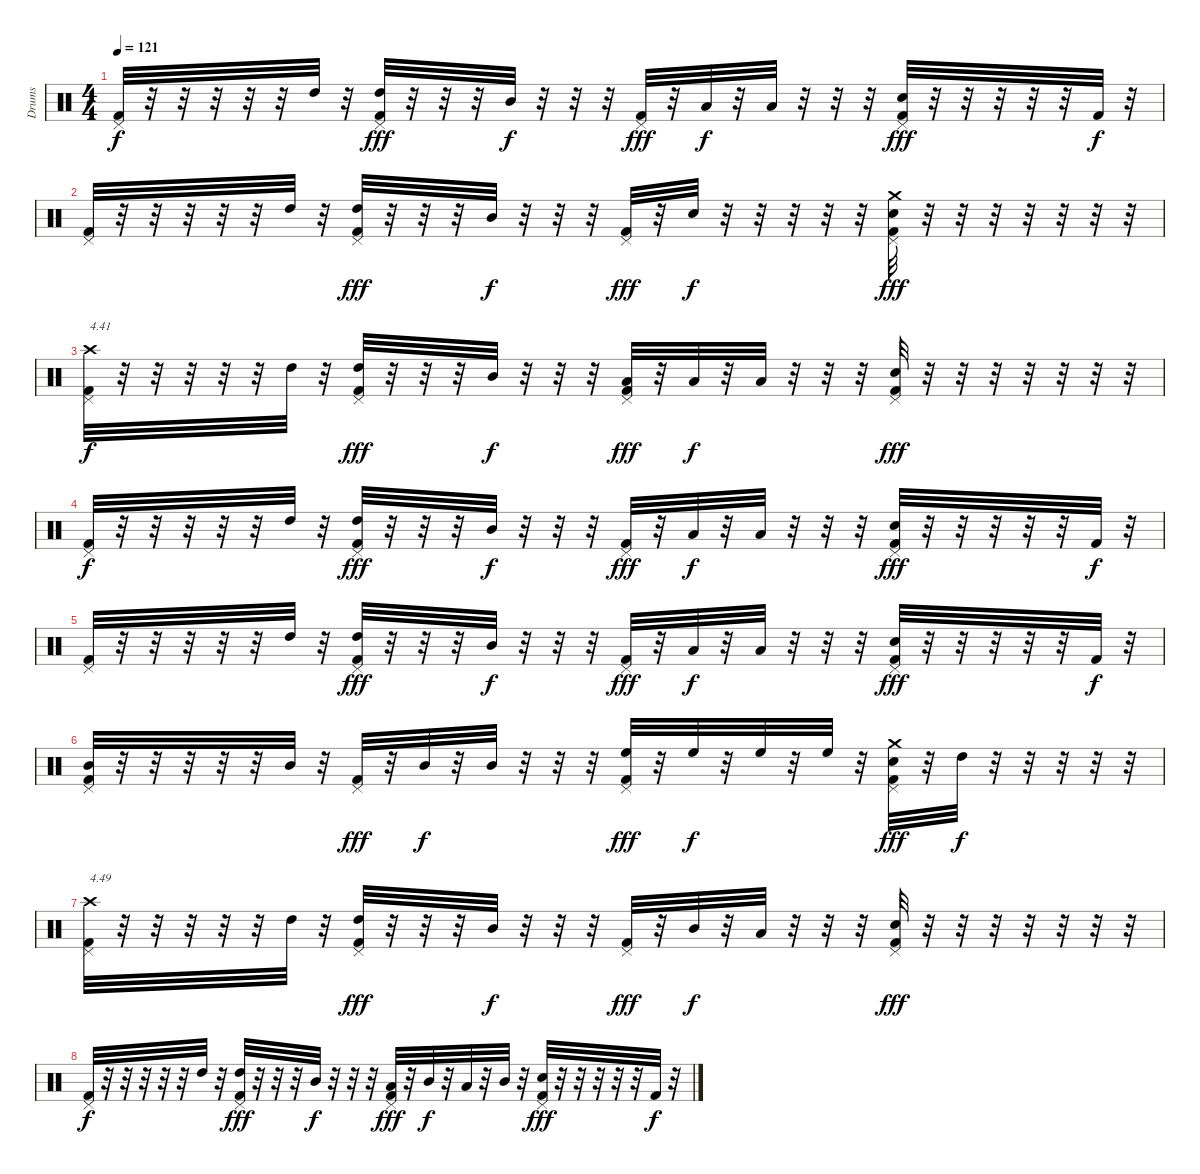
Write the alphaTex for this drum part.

\track ("Drums" "Drums") {instrument percussion}
\staff {score}
\articulation defaults
\ts (4 4)
\tempo 121
\clef neutral
\ks c
("Pedal Hi-Hat (hit)" "Kick (hit) 2").32{dy f} r.32 r.32 r.32 r.32 r.32 "High Tom (hit)".32 r.32 ("Pedal Hi-Hat (hit)" "Kick (hit) 2" "High Tom (hit)").32{dy fff} r.32 r.32 r.32 "Mid Tom (hit)".32{dy f} r.32 r.32 r.32 ("Pedal Hi-Hat (hit)" "Kick (hit) 2").32{dy fff} r.32 "Low Tom (hit)".32{dy f} r.32 "Low Tom (hit)".32 r.32 r.32 r.32 ("Pedal Hi-Hat (hit)" "Kick (hit) 2" "Electric Snare (hit)").32{dy fff} r.32 r.32 r.32 r.32 r.32 "Kick (hit) 2".32{dy f} r.32 |
("Pedal Hi-Hat (hit)" "Kick (hit) 2").32 r.32 r.32 r.32 r.32 r.32 "High Tom (hit)".32 r.32 ("Pedal Hi-Hat (hit)" "Kick (hit) 2" "High Tom (hit)").32{dy fff} r.32 r.32 r.32 "Mid Tom (hit)".32{dy f} r.32 r.32 r.32 ("Pedal Hi-Hat (hit)" "Kick (hit) 2").32{dy fff} r.32 "Electric Snare (hit)".32{dy f} r.32 r.32 r.32 r.32 r.32 ("Pedal Hi-Hat (hit)" "Kick (hit) 2" "Crash medium (hit)" "Electric Snare (hit)").32{dy fff} r.32 r.32 r.32 r.32 r.32 r.32 r.32 |
("Pedal Hi-Hat (hit)" "Kick (hit) 2" "Crash high (hit)").32{txt "4.41" dy f} r.32 r.32 r.32 r.32 r.32 "High Tom (hit)".32 r.32 ("Pedal Hi-Hat (hit)" "Kick (hit) 2" "High Tom (hit)").32{dy fff} r.32 r.32 r.32 "Mid Tom (hit)".32{dy f} r.32 r.32 r.32 ("Pedal Hi-Hat (hit)" "Kick (hit) 2" "Low Tom (hit)").32{dy fff} r.32 "Low Tom (hit)".32{dy f} r.32 "Low Tom (hit)".32 r.32 r.32 r.32 ("Pedal Hi-Hat (hit)" "Kick (hit) 2" "Electric Snare (hit)").32{dy fff} r.32 r.32 r.32 r.32 r.32 r.32 r.32 |
("Pedal Hi-Hat (hit)" "Kick (hit) 2").32{dy f} r.32 r.32 r.32 r.32 r.32 "High Tom (hit)".32 r.32 ("Pedal Hi-Hat (hit)" "Kick (hit) 2" "High Tom (hit)").32{dy fff} r.32 r.32 r.32 "Mid Tom (hit)".32{dy f} r.32 r.32 r.32 ("Pedal Hi-Hat (hit)" "Kick (hit) 2").32{dy fff} r.32 "Low Tom (hit)".32{dy f} r.32 "Low Tom (hit)".32 r.32 r.32 r.32 ("Pedal Hi-Hat (hit)" "Kick (hit) 2" "Electric Snare (hit)").32{dy fff} r.32 r.32 r.32 r.32 r.32 "Kick (hit) 2".32{dy f} r.32 |
("Pedal Hi-Hat (hit)" "Kick (hit) 2").32 r.32 r.32 r.32 r.32 r.32 "High Tom (hit)".32 r.32 ("Pedal Hi-Hat (hit)" "Kick (hit) 2" "High Tom (hit)").32{dy fff} r.32 r.32 r.32 "Mid Tom (hit)".32{dy f} r.32 r.32 r.32 ("Pedal Hi-Hat (hit)" "Kick (hit) 2").32{dy fff} r.32 "Low Tom (hit)".32{dy f} r.32 "Low Tom (hit)".32 r.32 r.32 r.32 ("Pedal Hi-Hat (hit)" "Kick (hit) 2" "Electric Snare (hit)").32{dy fff} r.32 r.32 r.32 r.32 r.32 "Kick (hit) 2".32{dy f} r.32 |
("Pedal Hi-Hat (hit)" "Kick (hit) 2" "Mid Tom (hit)").32 r.32 r.32 r.32 r.32 r.32 "Mid Tom (hit)".32 r.32 ("Pedal Hi-Hat (hit)" "Kick (hit) 2").32{dy fff} r.32 "Mid Tom (hit)".32{dy f} r.32 "Mid Tom (hit)".32 r.32 r.32 r.32 ("Pedal Hi-Hat (hit)" "Kick (hit) 2" "High Floor Tom (hit)").32{dy fff} r.32 "High Floor Tom (hit)".32{dy f} r.32 "High Floor Tom (hit)".32 r.32 "High Floor Tom (hit)".32 r.32 ("Pedal Hi-Hat (hit)" "Kick (hit) 2" "Crash medium (hit)" "Electric Snare (hit)").32{dy fff} r.32 "High Tom (hit)".32{dy f} r.32 r.32 r.32 r.32 r.32 |
("Pedal Hi-Hat (hit)" "Kick (hit) 2" "Crash high (hit)").32{txt "4.49"} r.32 r.32 r.32 r.32 r.32 "High Tom (hit)".32 r.32 ("Pedal Hi-Hat (hit)" "Kick (hit) 2" "High Tom (hit)").32{dy fff} r.32 r.32 r.32 "Mid Tom (hit)".32{dy f} r.32 r.32 r.32 ("Pedal Hi-Hat (hit)" "Kick (hit) 2").32{dy fff} r.32 "Mid Tom (hit)".32{dy f} r.32 "Low Tom (hit)".32 r.32 r.32 r.32 ("Pedal Hi-Hat (hit)" "Kick (hit) 2" "Electric Snare (hit)").32{dy fff} r.32 r.32 r.32 r.32 r.32 r.32 r.32 |
("Pedal Hi-Hat (hit)" "Kick (hit) 2").32{dy f} r.32 r.32 r.32 r.32 r.32 "High Tom (hit)".32 r.32 ("Pedal Hi-Hat (hit)" "Kick (hit) 2" "High Tom (hit)").32{dy fff} r.32 r.32 r.32 "Mid Tom (hit)".32{dy f} r.32 r.32 r.32 ("Pedal Hi-Hat (hit)" "Kick (hit) 2" "Low Tom (hit)").32{dy fff} r.32 "Mid Tom (hit)".32{dy f} r.32 "Low Tom (hit)".32 r.32 "Mid Tom (hit)".32 r.32 ("Pedal Hi-Hat (hit)" "Kick (hit) 2" "Electric Snare (hit)").32{dy fff} r.32 r.32 r.32 r.32 r.32 "Kick (hit) 2".32{dy f} r.32
